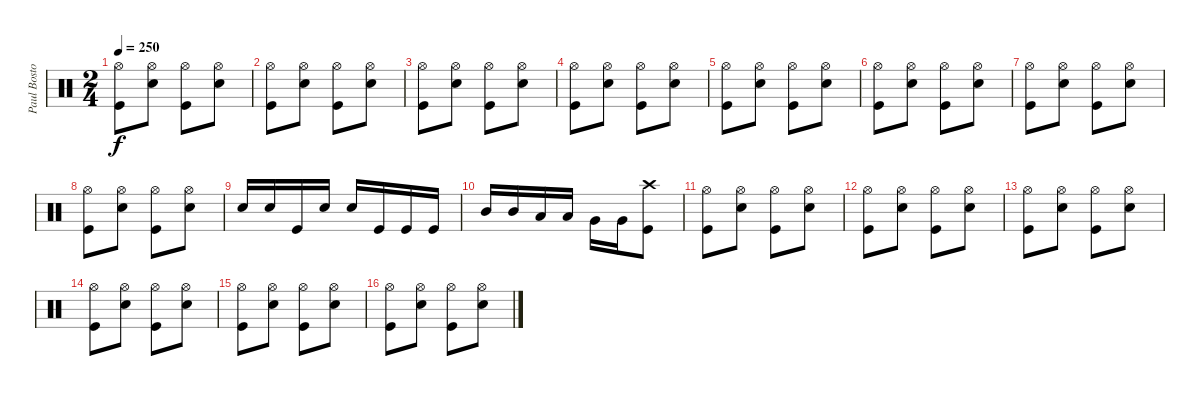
\track ("Paul Bostoph" "Paul Bosto") {instrument percussion}
\staff {score}
\articulation defaults
\ts (2 4)
\tempo 250
\clef neutral
\ks c
("Hi-Hat (open)" "Kick (hit)").8{dy f} ("Hi-Hat (open)" "Snare (hit) 2").8 ("Hi-Hat (open)" "Kick (hit)").8 ("Hi-Hat (open)" "Snare (hit) 2").8 |
("Hi-Hat (open)" "Kick (hit)").8 ("Hi-Hat (open)" "Snare (hit) 2").8 ("Hi-Hat (open)" "Kick (hit)").8 ("Hi-Hat (open)" "Snare (hit) 2").8 |
("Hi-Hat (open)" "Kick (hit)").8 ("Hi-Hat (open)" "Snare (hit) 2").8 ("Hi-Hat (open)" "Kick (hit)").8 ("Hi-Hat (open)" "Snare (hit) 2").8 |
("Hi-Hat (open)" "Kick (hit)").8 ("Hi-Hat (open)" "Snare (hit) 2").8 ("Hi-Hat (open)" "Kick (hit)").8 ("Hi-Hat (open)" "Snare (hit) 2").8 |
("Hi-Hat (open)" "Kick (hit)").8 ("Hi-Hat (open)" "Snare (hit) 2").8 ("Hi-Hat (open)" "Kick (hit)").8 ("Hi-Hat (open)" "Snare (hit) 2").8 |
("Hi-Hat (open)" "Kick (hit)").8 ("Hi-Hat (open)" "Snare (hit) 2").8 ("Hi-Hat (open)" "Kick (hit)").8 ("Hi-Hat (open)" "Snare (hit) 2").8 |
("Hi-Hat (open)" "Kick (hit)").8 ("Hi-Hat (open)" "Snare (hit) 2").8 ("Hi-Hat (open)" "Kick (hit)").8 ("Hi-Hat (open)" "Snare (hit) 2").8 |
("Hi-Hat (open)" "Kick (hit)").8 ("Hi-Hat (open)" "Snare (hit) 2").8 ("Hi-Hat (open)" "Kick (hit)").8 ("Hi-Hat (open)" "Snare (hit) 2").8 |
"Snare (hit) 2".16 "Snare (hit) 2".16 "Kick (hit)".16 "Snare (hit) 2".16 "Snare (hit) 2".16 "Kick (hit)".16 "Kick (hit)".16 "Kick (hit)".16 |
"Mid Tom (hit)".16 "Mid Tom (hit)".16 "Low Tom (hit)".16 "Low Tom (hit)".16 "Very Low Tom (hit)".16 "Very Low Tom (hit)".16 ("Crash high (hit)" "Kick (hit)").8 |
("Hi-Hat (open)" "Kick (hit)").8 ("Hi-Hat (open)" "Snare (hit) 2").8 ("Hi-Hat (open)" "Kick (hit)").8 ("Hi-Hat (open)" "Snare (hit) 2").8 |
("Hi-Hat (open)" "Kick (hit)").8 ("Hi-Hat (open)" "Snare (hit) 2").8 ("Hi-Hat (open)" "Kick (hit)").8 ("Hi-Hat (open)" "Snare (hit) 2").8 |
("Hi-Hat (open)" "Kick (hit)").8 ("Hi-Hat (open)" "Snare (hit) 2").8 ("Hi-Hat (open)" "Kick (hit)").8 ("Hi-Hat (open)" "Snare (hit) 2").8 |
("Hi-Hat (open)" "Kick (hit)").8 ("Hi-Hat (open)" "Snare (hit) 2").8 ("Hi-Hat (open)" "Kick (hit)").8 ("Hi-Hat (open)" "Snare (hit) 2").8 |
("Hi-Hat (open)" "Kick (hit)").8 ("Hi-Hat (open)" "Snare (hit) 2").8 ("Hi-Hat (open)" "Kick (hit)").8 ("Hi-Hat (open)" "Snare (hit) 2").8 |
("Hi-Hat (open)" "Kick (hit)").8 ("Hi-Hat (open)" "Snare (hit) 2").8 ("Hi-Hat (open)" "Kick (hit)").8 ("Hi-Hat (open)" "Snare (hit) 2").8
